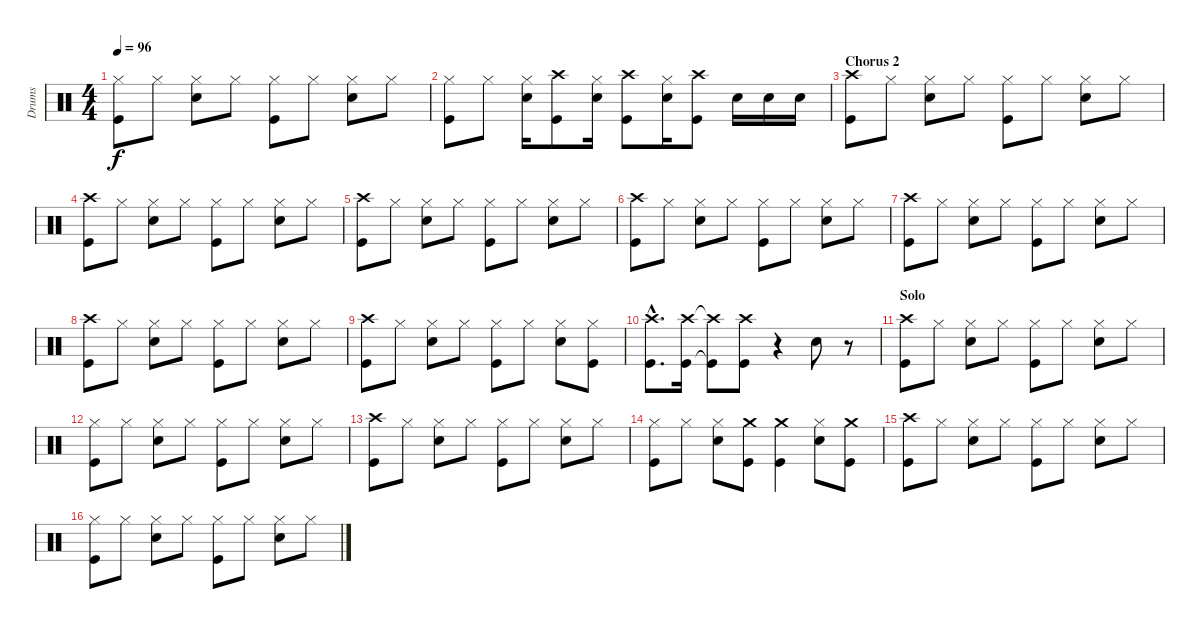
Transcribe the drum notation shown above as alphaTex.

\track ("Drums" "Drums") {instrument percussion}
\staff {score}
\articulation defaults
\ts (4 4)
\tempo 96
\clef neutral
\ks c
("Hi-Hat (closed)" "Kick (hit)").8{dy f} "Hi-Hat (closed)".8 ("Hi-Hat (closed)" "Electric Snare (hit)").8 "Hi-Hat (closed)".8 ("Hi-Hat (closed)" "Kick (hit)").8 "Hi-Hat (closed)".8 ("Hi-Hat (closed)" "Electric Snare (hit)").8 "Hi-Hat (closed)".8 |
("Hi-Hat (closed)" "Kick (hit)").8 "Hi-Hat (closed)".8 ("Hi-Hat (closed)" "Electric Snare (hit)").16 ("Crash high (hit)" "Kick (hit)").8 ("Hi-Hat (closed)" "Electric Snare (hit)").16 ("Crash high (hit)" "Kick (hit)").8 ("Hi-Hat (closed)" "Electric Snare (hit)").16 ("Crash high (hit)" "Kick (hit)").8 "Electric Snare (hit)".16 "Electric Snare (hit)".16 "Electric Snare (hit)".16 |
\section ("" "Chorus 2")
("Crash high (hit)" "Kick (hit)").8 "Hi-Hat (closed)".8 ("Hi-Hat (closed)" "Electric Snare (hit)").8 "Hi-Hat (closed)".8 ("Hi-Hat (closed)" "Kick (hit)").8 "Hi-Hat (closed)".8 ("Hi-Hat (closed)" "Electric Snare (hit)").8 "Hi-Hat (closed)".8 |
("Crash high (hit)" "Kick (hit)").8 "Hi-Hat (closed)".8 ("Hi-Hat (closed)" "Electric Snare (hit)").8 "Hi-Hat (closed)".8 ("Hi-Hat (closed)" "Kick (hit)").8 "Hi-Hat (closed)".8 ("Hi-Hat (closed)" "Electric Snare (hit)").8 "Hi-Hat (closed)".8 |
("Crash high (hit)" "Kick (hit)").8 "Hi-Hat (closed)".8 ("Hi-Hat (closed)" "Electric Snare (hit)").8 "Hi-Hat (closed)".8 ("Hi-Hat (closed)" "Kick (hit)").8 "Hi-Hat (closed)".8 ("Hi-Hat (closed)" "Electric Snare (hit)").8 "Hi-Hat (closed)".8 |
("Crash high (hit)" "Kick (hit)").8 "Hi-Hat (closed)".8 ("Hi-Hat (closed)" "Electric Snare (hit)").8 "Hi-Hat (closed)".8 ("Hi-Hat (closed)" "Kick (hit)").8 "Hi-Hat (closed)".8 ("Hi-Hat (closed)" "Electric Snare (hit)").8 "Hi-Hat (closed)".8 |
("Crash high (hit)" "Kick (hit)").8 "Hi-Hat (closed)".8 ("Hi-Hat (closed)" "Electric Snare (hit)").8 "Hi-Hat (closed)".8 ("Hi-Hat (closed)" "Kick (hit)").8 "Hi-Hat (closed)".8 ("Hi-Hat (closed)" "Electric Snare (hit)").8 "Hi-Hat (closed)".8 |
("Crash high (hit)" "Kick (hit)").8 "Hi-Hat (closed)".8 ("Hi-Hat (closed)" "Electric Snare (hit)").8 "Hi-Hat (closed)".8 ("Hi-Hat (closed)" "Kick (hit)").8 "Hi-Hat (closed)".8 ("Hi-Hat (closed)" "Electric Snare (hit)").8 "Hi-Hat (closed)".8 |
("Crash high (hit)" "Kick (hit)").8 "Hi-Hat (closed)".8 ("Hi-Hat (closed)" "Electric Snare (hit)").8 "Hi-Hat (closed)".8 ("Hi-Hat (closed)" "Kick (hit)").8 "Hi-Hat (closed)".8 ("Hi-Hat (closed)" "Electric Snare (hit)").8 ("Hi-Hat (closed)" "Kick (hit)").8 |
("Crash high (hit)"{hac} "Kick (hit)"{hac}).8{d} ("Crash high (hit)" "Kick (hit)").16 ("Crash high (hit)"{t} "Kick (hit)"{t}).8 ("Crash high (hit)" "Kick (hit)").8 r.4 "Electric Snare (hit)".8 r.8 |
\section ("" "Solo")
("Crash high (hit)" "Kick (hit)").8 "Hi-Hat (closed)".8 ("Hi-Hat (closed)" "Electric Snare (hit)").8 "Hi-Hat (closed)".8 ("Hi-Hat (closed)" "Kick (hit)").8 "Hi-Hat (closed)".8 ("Hi-Hat (closed)" "Electric Snare (hit)").8 "Hi-Hat (closed)".8 |
("Hi-Hat (closed)" "Kick (hit)").8 "Hi-Hat (closed)".8 ("Hi-Hat (closed)" "Electric Snare (hit)").8 "Hi-Hat (closed)".8 ("Hi-Hat (closed)" "Kick (hit)").8 "Hi-Hat (closed)".8 ("Hi-Hat (closed)" "Electric Snare (hit)").8 "Hi-Hat (closed)".8 |
("Crash high (hit)" "Kick (hit)").8 "Hi-Hat (closed)".8 ("Hi-Hat (closed)" "Electric Snare (hit)").8 "Hi-Hat (closed)".8 ("Hi-Hat (closed)" "Kick (hit)").8 "Hi-Hat (closed)".8 ("Hi-Hat (closed)" "Electric Snare (hit)").8 "Hi-Hat (closed)".8 |
("Hi-Hat (closed)" "Kick (hit)").8 "Hi-Hat (closed)".8 ("Hi-Hat (closed)" "Electric Snare (hit)").8 ("Crash medium (hit)" "Kick (hit)").8 ("Crash medium (hit)" "Kick (hit)").4 ("Hi-Hat (closed)" "Electric Snare (hit)").8 ("Crash medium (hit)" "Kick (hit)").8 |
("Crash high (hit)" "Kick (hit)").8 "Hi-Hat (closed)".8 ("Hi-Hat (closed)" "Electric Snare (hit)").8 "Hi-Hat (closed)".8 ("Hi-Hat (closed)" "Kick (hit)").8 "Hi-Hat (closed)".8 ("Hi-Hat (closed)" "Electric Snare (hit)").8 "Hi-Hat (closed)".8 |
("Hi-Hat (closed)" "Kick (hit)").8 "Hi-Hat (closed)".8 ("Hi-Hat (closed)" "Electric Snare (hit)").8 "Hi-Hat (closed)".8 ("Hi-Hat (closed)" "Kick (hit)").8 "Hi-Hat (closed)".8 ("Hi-Hat (closed)" "Electric Snare (hit)").8 "Hi-Hat (closed)".8
